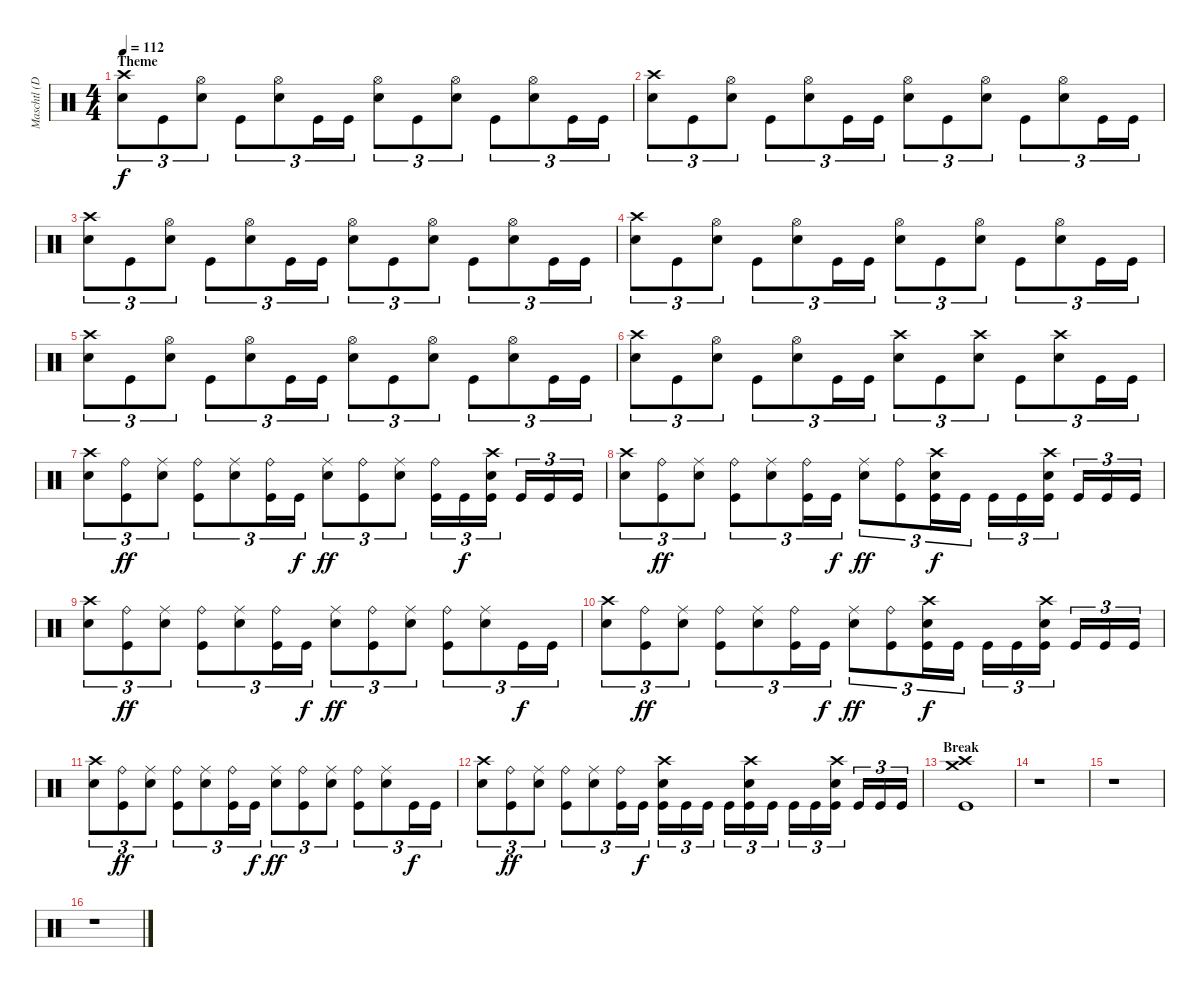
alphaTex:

\track ("Maschtl (Drums)" "Maschtl (D") {instrument percussion}
\staff {score}
\articulation defaults
\ts (4 4)
\section ("" "Theme")
\tempo 112
\clef neutral
\ks c
("Crash high (hit)" "Electric Snare (hit)").8{tu (3 2) dy f} "Kick (hit)".8{tu (3 2)} ("Hi-Hat (open)" "Electric Snare (hit)").8{tu (3 2)} "Kick (hit)".8{tu (3 2)} ("Hi-Hat (open)" "Electric Snare (hit)").8{tu (3 2)} "Kick (hit)".16{tu (3 2)} "Kick (hit)".16{tu (3 2)} ("Hi-Hat (open)" "Electric Snare (hit)").8{tu (3 2)} "Kick (hit)".8{tu (3 2)} ("Hi-Hat (open)" "Electric Snare (hit)").8{tu (3 2)} "Kick (hit)".8{tu (3 2)} ("Hi-Hat (open)" "Electric Snare (hit)").8{tu (3 2)} "Kick (hit)".16{tu (3 2)} "Kick (hit)".16{tu (3 2)} |
("Crash high (hit)" "Electric Snare (hit)").8{tu (3 2)} "Kick (hit)".8{tu (3 2)} ("Hi-Hat (open)" "Electric Snare (hit)").8{tu (3 2)} "Kick (hit)".8{tu (3 2)} ("Hi-Hat (open)" "Electric Snare (hit)").8{tu (3 2)} "Kick (hit)".16{tu (3 2)} "Kick (hit)".16{tu (3 2)} ("Hi-Hat (open)" "Electric Snare (hit)").8{tu (3 2)} "Kick (hit)".8{tu (3 2)} ("Hi-Hat (open)" "Electric Snare (hit)").8{tu (3 2)} "Kick (hit)".8{tu (3 2)} ("Hi-Hat (open)" "Electric Snare (hit)").8{tu (3 2)} "Kick (hit)".16{tu (3 2)} "Kick (hit)".16{tu (3 2)} |
("Crash high (hit)" "Electric Snare (hit)").8{tu (3 2)} "Kick (hit)".8{tu (3 2)} ("Hi-Hat (open)" "Electric Snare (hit)").8{tu (3 2)} "Kick (hit)".8{tu (3 2)} ("Hi-Hat (open)" "Electric Snare (hit)").8{tu (3 2)} "Kick (hit)".16{tu (3 2)} "Kick (hit)".16{tu (3 2)} ("Hi-Hat (open)" "Electric Snare (hit)").8{tu (3 2)} "Kick (hit)".8{tu (3 2)} ("Hi-Hat (open)" "Electric Snare (hit)").8{tu (3 2)} "Kick (hit)".8{tu (3 2)} ("Hi-Hat (open)" "Electric Snare (hit)").8{tu (3 2)} "Kick (hit)".16{tu (3 2)} "Kick (hit)".16{tu (3 2)} |
("Crash high (hit)" "Electric Snare (hit)").8{tu (3 2)} "Kick (hit)".8{tu (3 2)} ("Hi-Hat (open)" "Electric Snare (hit)").8{tu (3 2)} "Kick (hit)".8{tu (3 2)} ("Hi-Hat (open)" "Electric Snare (hit)").8{tu (3 2)} "Kick (hit)".16{tu (3 2)} "Kick (hit)".16{tu (3 2)} ("Hi-Hat (open)" "Electric Snare (hit)").8{tu (3 2)} "Kick (hit)".8{tu (3 2)} ("Hi-Hat (open)" "Electric Snare (hit)").8{tu (3 2)} "Kick (hit)".8{tu (3 2)} ("Hi-Hat (open)" "Electric Snare (hit)").8{tu (3 2)} "Kick (hit)".16{tu (3 2)} "Kick (hit)".16{tu (3 2)} |
("Crash high (hit)" "Electric Snare (hit)").8{tu (3 2)} "Kick (hit)".8{tu (3 2)} ("Hi-Hat (open)" "Electric Snare (hit)").8{tu (3 2)} "Kick (hit)".8{tu (3 2)} ("Hi-Hat (open)" "Electric Snare (hit)").8{tu (3 2)} "Kick (hit)".16{tu (3 2)} "Kick (hit)".16{tu (3 2)} ("Hi-Hat (open)" "Electric Snare (hit)").8{tu (3 2)} "Kick (hit)".8{tu (3 2)} ("Hi-Hat (open)" "Electric Snare (hit)").8{tu (3 2)} "Kick (hit)".8{tu (3 2)} ("Hi-Hat (open)" "Electric Snare (hit)").8{tu (3 2)} "Kick (hit)".16{tu (3 2)} "Kick (hit)".16{tu (3 2)} |
("Crash high (hit)" "Electric Snare (hit)").8{tu (3 2)} "Kick (hit)".8{tu (3 2)} ("Hi-Hat (open)" "Electric Snare (hit)").8{tu (3 2)} "Kick (hit)".8{tu (3 2)} ("Hi-Hat (open)" "Electric Snare (hit)").8{tu (3 2)} "Kick (hit)".16{tu (3 2)} "Kick (hit)".16{tu (3 2)} ("Crash high (hit)" "Electric Snare (hit)").8{tu (3 2)} "Kick (hit)".8{tu (3 2)} ("Crash high (hit)" "Electric Snare (hit)").8{tu (3 2)} "Kick (hit)".8{tu (3 2)} ("Crash high (hit)" "Electric Snare (hit)").8{tu (3 2)} "Kick (hit)".16{tu (3 2)} "Kick (hit)".16{tu (3 2)} |
("Crash high (hit)" "Electric Snare (hit)").8{tu (3 2)} ("Ride (bell)" "Kick (hit)").8{tu (3 2) dy ff} ("Ride (middle)" "Electric Snare (hit)").8{tu (3 2)} ("Ride (bell)" "Kick (hit)").8{tu (3 2)} ("Ride (middle)" "Electric Snare (hit)").8{tu (3 2)} ("Ride (bell)" "Kick (hit)").16{tu (3 2)} "Kick (hit)".16{tu (3 2) dy f} ("Ride (middle)" "Electric Snare (hit)").8{tu (3 2) dy ff} ("Ride (bell)" "Kick (hit)").8{tu (3 2)} ("Ride (middle)" "Electric Snare (hit)").8{tu (3 2)} ("Ride (bell)" "Kick (hit)").16{tu (3 2)} "Kick (hit)".16{tu (3 2) dy f} ("Crash high (hit)" "Electric Snare (hit)" "Kick (hit)").16{tu (3 2)} "Kick (hit)".16{tu (3 2)} "Kick (hit)".16{tu (3 2)} "Kick (hit)".16{tu (3 2)} |
("Crash high (hit)" "Electric Snare (hit)").8{tu (3 2)} ("Ride (bell)" "Kick (hit)").8{tu (3 2) dy ff} ("Ride (middle)" "Electric Snare (hit)").8{tu (3 2)} ("Ride (bell)" "Kick (hit)").8{tu (3 2)} ("Ride (middle)" "Electric Snare (hit)").8{tu (3 2)} ("Ride (bell)" "Kick (hit)").16{tu (3 2)} "Kick (hit)".16{tu (3 2) dy f} ("Ride (middle)" "Electric Snare (hit)").8{tu (3 2) dy ff} ("Ride (bell)" "Kick (hit)").8{tu (3 2)} ("Crash high (hit)" "Electric Snare (hit)" "Kick (hit)").16{tu (3 2) dy f} "Kick (hit)".16{tu (3 2)} "Kick (hit)".16{tu (3 2)} "Kick (hit)".16{tu (3 2)} ("Crash high (hit)" "Electric Snare (hit)" "Kick (hit)").16{tu (3 2)} "Kick (hit)".16{tu (3 2)} "Kick (hit)".16{tu (3 2)} "Kick (hit)".16{tu (3 2)} |
("Crash high (hit)" "Electric Snare (hit)").8{tu (3 2)} ("Ride (bell)" "Kick (hit)").8{tu (3 2) dy ff} ("Ride (middle)" "Electric Snare (hit)").8{tu (3 2)} ("Ride (bell)" "Kick (hit)").8{tu (3 2)} ("Ride (middle)" "Electric Snare (hit)").8{tu (3 2)} ("Ride (bell)" "Kick (hit)").16{tu (3 2)} "Kick (hit)".16{tu (3 2) dy f} ("Ride (middle)" "Electric Snare (hit)").8{tu (3 2) dy ff} ("Ride (bell)" "Kick (hit)").8{tu (3 2)} ("Ride (middle)" "Electric Snare (hit)").8{tu (3 2)} ("Ride (bell)" "Kick (hit)").8{tu (3 2)} ("Ride (middle)" "Electric Snare (hit)").8{tu (3 2)} "Kick (hit)".16{tu (3 2) dy f} "Kick (hit)".16{tu (3 2)} |
("Crash high (hit)" "Electric Snare (hit)").8{tu (3 2)} ("Ride (bell)" "Kick (hit)").8{tu (3 2) dy ff} ("Ride (middle)" "Electric Snare (hit)").8{tu (3 2)} ("Ride (bell)" "Kick (hit)").8{tu (3 2)} ("Ride (middle)" "Electric Snare (hit)").8{tu (3 2)} ("Ride (bell)" "Kick (hit)").16{tu (3 2)} "Kick (hit)".16{tu (3 2) dy f} ("Ride (middle)" "Electric Snare (hit)").8{tu (3 2) dy ff} ("Ride (bell)" "Kick (hit)").8{tu (3 2)} ("Crash high (hit)" "Electric Snare (hit)" "Kick (hit)").16{tu (3 2) dy f} "Kick (hit)".16{tu (3 2)} "Kick (hit)".16{tu (3 2)} "Kick (hit)".16{tu (3 2)} ("Crash high (hit)" "Electric Snare (hit)" "Kick (hit)").16{tu (3 2)} "Kick (hit)".16{tu (3 2)} "Kick (hit)".16{tu (3 2)} "Kick (hit)".16{tu (3 2)} |
("Crash high (hit)" "Electric Snare (hit)").8{tu (3 2)} ("Ride (bell)" "Kick (hit)").8{tu (3 2) dy ff} ("Ride (middle)" "Electric Snare (hit)").8{tu (3 2)} ("Ride (bell)" "Kick (hit)").8{tu (3 2)} ("Ride (middle)" "Electric Snare (hit)").8{tu (3 2)} ("Ride (bell)" "Kick (hit)").16{tu (3 2)} "Kick (hit)".16{tu (3 2) dy f} ("Ride (middle)" "Electric Snare (hit)").8{tu (3 2) dy ff} ("Ride (bell)" "Kick (hit)").8{tu (3 2)} ("Ride (middle)" "Electric Snare (hit)").8{tu (3 2)} ("Ride (bell)" "Kick (hit)").8{tu (3 2)} ("Ride (middle)" "Electric Snare (hit)").8{tu (3 2)} "Kick (hit)".16{tu (3 2) dy f} "Kick (hit)".16{tu (3 2)} |
("Crash high (hit)" "Electric Snare (hit)").8{tu (3 2)} ("Ride (bell)" "Kick (hit)").8{tu (3 2) dy ff} ("Ride (middle)" "Electric Snare (hit)").8{tu (3 2)} ("Ride (bell)" "Kick (hit)").8{tu (3 2)} ("Ride (middle)" "Electric Snare (hit)").8{tu (3 2)} ("Ride (bell)" "Kick (hit)").16{tu (3 2)} "Kick (hit)".16{tu (3 2) dy f} ("Crash high (hit)" "Electric Snare (hit)" "Kick (hit)").16{tu (3 2)} "Kick (hit)".16{tu (3 2)} "Kick (hit)".16{tu (3 2)} "Kick (hit)".16{tu (3 2)} ("Crash high (hit)" "Electric Snare (hit)" "Kick (hit)").16{tu (3 2)} "Kick (hit)".16{tu (3 2)} "Kick (hit)".16{tu (3 2)} "Kick (hit)".16{tu (3 2)} ("Crash high (hit)" "Electric Snare (hit)" "Kick (hit)").16{tu (3 2)} "Kick (hit)".16{tu (3 2)} "Kick (hit)".16{tu (3 2)} "Kick (hit)".16{tu (3 2)} |
\section ("" "Break")
("Crash high (hit)" "Crash medium (hit)" "Kick (hit)").1 |
r.1 |
r.1 |
r.1
